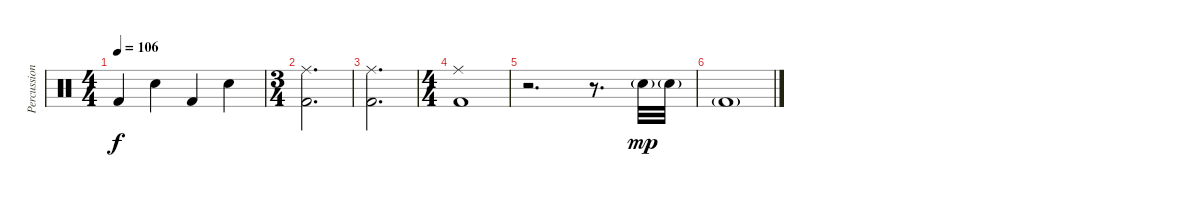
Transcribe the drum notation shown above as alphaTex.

\track ("Percussion" "Percussion") {instrument percussion}
\staff {score}
\articulation defaults
\ts (4 4)
\tempo 106
\clef neutral
\ks c "Kick (hit) 2".4{dy f} "Snare (hit) 2".4 "Kick (hit) 2".4 "Snare (hit) 2".4
|
\ts (3 4)
("Ride (middle)" "Kick (hit) 2").2{d} |
("Ride (middle)" "Kick (hit) 2").2{d} |
\ts (4 4)
("Ride (middle)" "Kick (hit) 2").1 |
r.2{d} r.8{d} "Snare (hit) 2"{g}.32{dy mp} "Snare (hit) 2"{g}.32 |
"Kick (hit) 2"{g}.1
